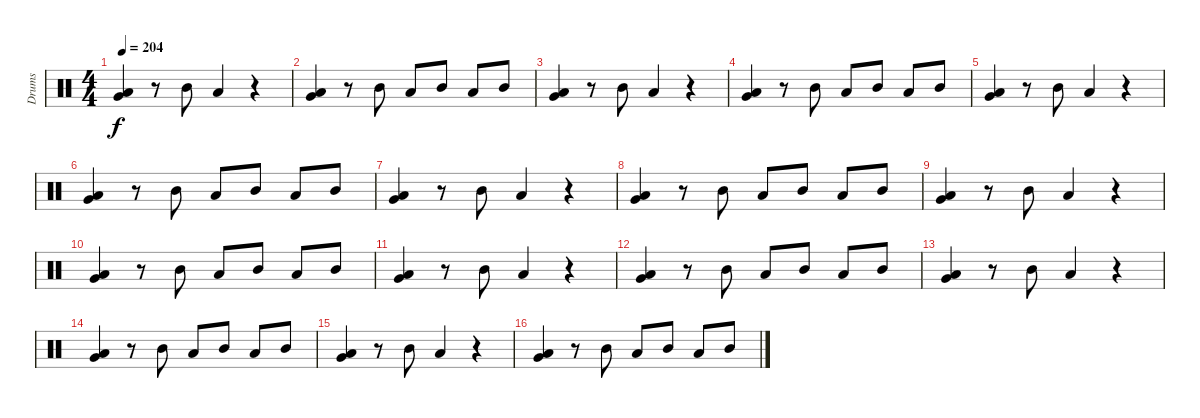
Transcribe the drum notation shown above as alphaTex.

\track ("Drums" "Drums") {instrument percussion}
\staff {score}
\articulation defaults
\ts (4 4)
\tempo 204
\clef neutral
\ks c
("Low Tom (hit)" "Very Low Tom (hit)").4{dy f} r.8 "Mid Tom (hit)".8 "Low Tom (hit)".4 r.4 |
("Low Tom (hit)" "Very Low Tom (hit)").4 r.8 "Mid Tom (hit)".8 "Low Tom (hit)".8 "Mid Tom (hit)".8 "Low Tom (hit)".8 "Mid Tom (hit)".8 |
("Low Tom (hit)" "Very Low Tom (hit)").4 r.8 "Mid Tom (hit)".8 "Low Tom (hit)".4 r.4 |
("Very Low Tom (hit)" "Low Tom (hit)").4 r.8 "Mid Tom (hit)".8 "Low Tom (hit)".8 "Mid Tom (hit)".8 "Low Tom (hit)".8 "Mid Tom (hit)".8 |
("Low Tom (hit)" "Very Low Tom (hit)").4 r.8 "Mid Tom (hit)".8 "Low Tom (hit)".4 r.4 |
("Low Tom (hit)" "Very Low Tom (hit)").4 r.8 "Mid Tom (hit)".8 "Low Tom (hit)".8 "Mid Tom (hit)".8 "Low Tom (hit)".8 "Mid Tom (hit)".8 |
("Low Tom (hit)" "Very Low Tom (hit)").4 r.8 "Mid Tom (hit)".8 "Low Tom (hit)".4 r.4 |
("Low Tom (hit)" "Very Low Tom (hit)").4 r.8 "Mid Tom (hit)".8 "Low Tom (hit)".8 "Mid Tom (hit)".8 "Low Tom (hit)".8 "Mid Tom (hit)".8 |
("Low Tom (hit)" "Very Low Tom (hit)").4 r.8 "Mid Tom (hit)".8 "Low Tom (hit)".4 r.4 |
("Low Tom (hit)" "Very Low Tom (hit)").4 r.8 "Mid Tom (hit)".8 "Low Tom (hit)".8 "Mid Tom (hit)".8 "Low Tom (hit)".8 "Mid Tom (hit)".8 |
("Low Tom (hit)" "Very Low Tom (hit)").4 r.8 "Mid Tom (hit)".8 "Low Tom (hit)".4 r.4 |
("Very Low Tom (hit)" "Low Tom (hit)").4 r.8 "Mid Tom (hit)".8 "Low Tom (hit)".8 "Mid Tom (hit)".8 "Low Tom (hit)".8 "Mid Tom (hit)".8 |
("Very Low Tom (hit)" "Low Tom (hit)").4 r.8 "Mid Tom (hit)".8 "Low Tom (hit)".4 r.4 |
("Low Tom (hit)" "Very Low Tom (hit)").4 r.8 "Mid Tom (hit)".8 "Low Tom (hit)".8 "Mid Tom (hit)".8 "Low Tom (hit)".8 "Mid Tom (hit)".8 |
("Very Low Tom (hit)" "Low Tom (hit)").4 r.8 "Mid Tom (hit)".8 "Low Tom (hit)".4 r.4 |
("Very Low Tom (hit)" "Low Tom (hit)").4 r.8 "Mid Tom (hit)".8 "Low Tom (hit)".8 "Mid Tom (hit)".8 "Low Tom (hit)".8 "Mid Tom (hit)".8
